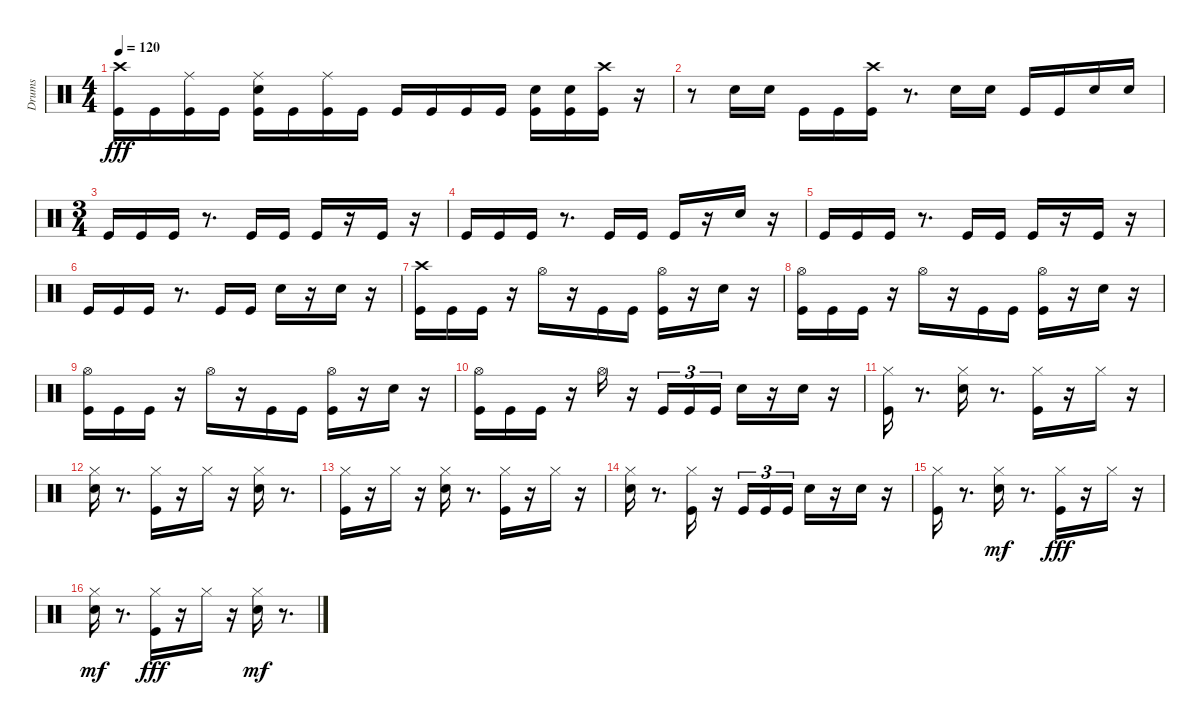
\track ("Drums" "Drums") {instrument percussion}
\staff {score}
\articulation defaults
\ts (4 4)
\tempo 120
\clef neutral
\ks c
("Crash high (hit)" "Kick (hit)").16{dy fff} "Kick (hit)".16 ("Ride (middle)" "Kick (hit)").16 "Kick (hit)".16 ("Snare (hit) 2" "Ride (middle)" "Kick (hit)").16 "Kick (hit)".16 ("Ride (middle)" "Kick (hit)").16 "Kick (hit)".16 "Kick (hit)".16 "Kick (hit)".16 "Kick (hit)".16 "Kick (hit)".16 ("Snare (hit) 2" "Kick (hit)").16 ("Snare (hit) 2" "Kick (hit)").16 ("Crash high (hit)" "Kick (hit)").16 r.16 |
r.8 "Snare (hit) 2".16 "Snare (hit) 2".16 "Kick (hit)".16 "Kick (hit)".16 ("Crash high (hit)" "Kick (hit)").16 r.8{d} "Snare (hit) 2".16 "Snare (hit) 2".16 "Kick (hit)".16 "Kick (hit)".16 "Snare (hit) 2".16 "Snare (hit) 2".16 |
\ts (3 4)
"Kick (hit)".16 "Kick (hit)".16 "Kick (hit)".16 r.8{d} "Kick (hit)".16 "Kick (hit)".16 "Kick (hit)".16 r.16 "Kick (hit)".16 r.16 |
"Kick (hit)".16 "Kick (hit)".16 "Kick (hit)".16 r.8{d} "Kick (hit)".16 "Kick (hit)".16 "Kick (hit)".16 r.16 "Snare (hit) 2".16{volume 16} r.16 |
"Kick (hit)".16{volume 10} "Kick (hit)".16 "Kick (hit)".16 r.8{d} "Kick (hit)".16 "Kick (hit)".16 "Kick (hit)".16 r.16 "Kick (hit)".16 r.16 |
"Kick (hit)".16 "Kick (hit)".16 "Kick (hit)".16 r.8{d} "Kick (hit)".16 "Kick (hit)".16 "Snare (hit) 2".16 r.16 "Snare (hit) 2".16 r.16 |
("Crash high (hit)" "Kick (hit)").16 "Kick (hit)".16 "Kick (hit)".16 r.16 "Hi-Hat (open)".16 r.16 "Kick (hit)".16 "Kick (hit)".16 ("Hi-Hat (open)" "Kick (hit)").16 r.16 "Snare (hit) 2".16 r.16 |
("Hi-Hat (open)" "Kick (hit)").16 "Kick (hit)".16 "Kick (hit)".16 r.16 "Hi-Hat (open)".16 r.16 "Kick (hit)".16 "Kick (hit)".16 ("Hi-Hat (open)" "Kick (hit)").16 r.16 "Snare (hit) 2".16 r.16 |
("Hi-Hat (open)" "Kick (hit)").16 "Kick (hit)".16 "Kick (hit)".16 r.16 "Hi-Hat (open)".16 r.16 "Kick (hit)".16 "Kick (hit)".16 ("Kick (hit)" "Hi-Hat (open)").16 r.16 "Snare (hit) 2".16 r.16 |
("Kick (hit)" "Hi-Hat (open)").16 "Kick (hit)".16 "Kick (hit)".16 r.16 "Hi-Hat (open)".16 r.16 "Kick (hit)".16{tu (3 2)} "Kick (hit)".16{tu (3 2)} "Kick (hit)".16{tu (3 2)} "Snare (hit) 2".16 r.16 "Snare (hit) 2".16 r.16 |
("Hi-Hat (closed)" "Kick (hit)").16 r.8{d} ("Hi-Hat (closed)" "Snare (hit) 2").16 r.8{d} ("Hi-Hat (closed)" "Kick (hit)").16 r.16 "Hi-Hat (closed)".16 r.16 |
("Hi-Hat (closed)" "Snare (hit) 2").16 r.8{d} ("Hi-Hat (closed)" "Kick (hit)").16 r.16 "Hi-Hat (closed)".16 r.16 ("Hi-Hat (closed)" "Snare (hit) 2").16 r.8{d} |
("Hi-Hat (closed)" "Kick (hit)").16 r.16 "Hi-Hat (closed)".16 r.16 ("Hi-Hat (closed)" "Snare (hit) 2").16 r.8{d} ("Hi-Hat (closed)" "Kick (hit)").16 r.16 "Hi-Hat (closed)".16 r.16 |
("Hi-Hat (closed)" "Snare (hit) 2").16 r.8{d} ("Hi-Hat (closed)" "Kick (hit)").16 r.16 "Kick (hit)".16{tu (3 2)} "Kick (hit)".16{tu (3 2)} "Kick (hit)".16{tu (3 2)} "Snare (hit) 2".16 r.16 "Snare (hit) 2".16 r.16 |
("Kick (hit)" "Hi-Hat (closed)").16 r.8{d} ("Snare (hit) 2" "Hi-Hat (closed)").16{dy mf} r.8{d} ("Kick (hit)" "Hi-Hat (closed)").16{dy fff} r.16 "Hi-Hat (closed)".16 r.16 |
("Snare (hit) 2" "Hi-Hat (closed)").16{dy mf} r.8{d} ("Kick (hit)" "Hi-Hat (closed)").16{dy fff} r.16 "Hi-Hat (closed)".16 r.16 ("Snare (hit) 2" "Hi-Hat (closed)").16{dy mf} r.8{d}
